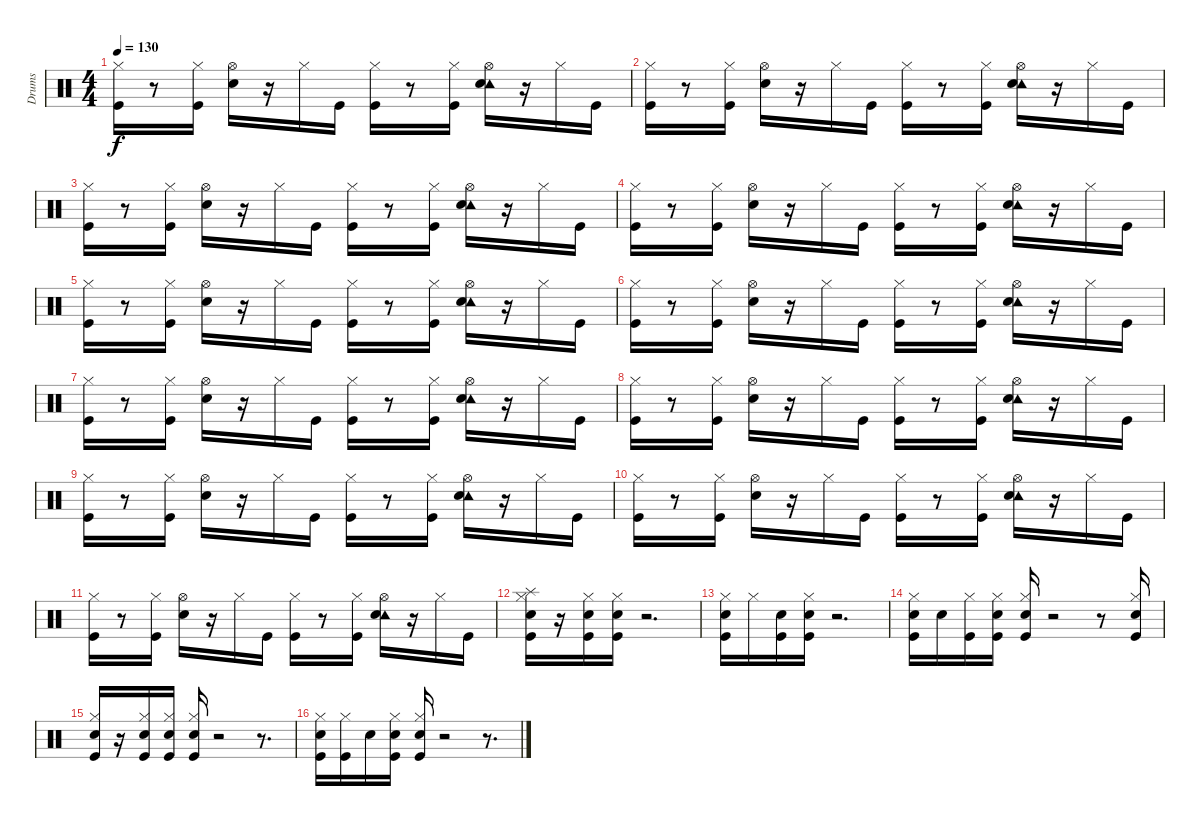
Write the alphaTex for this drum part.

\track ("Drums" "Drums") {instrument percussion}
\staff {score}
\articulation defaults
\ts (4 4)
\tempo 130
\clef neutral
\ks c
("Kick (hit)" "Hi-Hat (closed)").16{dy f} r.8 ("Hi-Hat (closed)" "Kick (hit)").16 ("Electric Snare (hit)" "Hi-Hat (open)").16 r.16 "Hi-Hat (closed)".16 "Kick (hit)".16 ("Hi-Hat (closed)" "Kick (hit)").16 r.8 ("Hi-Hat (closed)" "Kick (hit)").16 ("Tambourine (hit)" "Hi-Hat (open)" "Electric Snare (hit)").16 r.16 "Hi-Hat (closed)".16 "Kick (hit)".16 |
("Kick (hit)" "Hi-Hat (closed)").16 r.8 ("Hi-Hat (closed)" "Kick (hit)").16 ("Electric Snare (hit)" "Hi-Hat (open)").16 r.16 "Hi-Hat (closed)".16 "Kick (hit)".16 ("Hi-Hat (closed)" "Kick (hit)").16 r.8 ("Hi-Hat (closed)" "Kick (hit)").16 ("Tambourine (hit)" "Hi-Hat (open)" "Electric Snare (hit)").16 r.16 "Hi-Hat (closed)".16 "Kick (hit)".16 |
("Kick (hit)" "Hi-Hat (closed)").16 r.8 ("Hi-Hat (closed)" "Kick (hit)").16 ("Electric Snare (hit)" "Hi-Hat (open)").16 r.16 "Hi-Hat (closed)".16 "Kick (hit)".16 ("Hi-Hat (closed)" "Kick (hit)").16 r.8 ("Hi-Hat (closed)" "Kick (hit)").16 ("Tambourine (hit)" "Hi-Hat (open)" "Electric Snare (hit)").16 r.16 "Hi-Hat (closed)".16 "Kick (hit)".16 |
("Kick (hit)" "Hi-Hat (closed)").16 r.8 ("Hi-Hat (closed)" "Kick (hit)").16 ("Electric Snare (hit)" "Hi-Hat (open)").16 r.16 "Hi-Hat (closed)".16 "Kick (hit)".16 ("Hi-Hat (closed)" "Kick (hit)").16 r.8 ("Hi-Hat (closed)" "Kick (hit)").16 ("Tambourine (hit)" "Hi-Hat (open)" "Electric Snare (hit)").16 r.16 "Hi-Hat (closed)".16 "Kick (hit)".16 |
("Kick (hit)" "Hi-Hat (closed)").16 r.8 ("Hi-Hat (closed)" "Kick (hit)").16 ("Electric Snare (hit)" "Hi-Hat (open)").16 r.16 "Hi-Hat (closed)".16 "Kick (hit)".16 ("Hi-Hat (closed)" "Kick (hit)").16 r.8 ("Hi-Hat (closed)" "Kick (hit)").16 ("Tambourine (hit)" "Hi-Hat (open)" "Electric Snare (hit)").16 r.16 "Hi-Hat (closed)".16 "Kick (hit)".16 |
("Kick (hit)" "Hi-Hat (closed)").16 r.8 ("Hi-Hat (closed)" "Kick (hit)").16 ("Electric Snare (hit)" "Hi-Hat (open)").16 r.16 "Hi-Hat (closed)".16 "Kick (hit)".16 ("Hi-Hat (closed)" "Kick (hit)").16 r.8 ("Hi-Hat (closed)" "Kick (hit)").16 ("Tambourine (hit)" "Hi-Hat (open)" "Electric Snare (hit)").16 r.16 "Hi-Hat (closed)".16 "Kick (hit)".16 |
("Kick (hit)" "Hi-Hat (closed)").16 r.8 ("Hi-Hat (closed)" "Kick (hit)").16 ("Electric Snare (hit)" "Hi-Hat (open)").16 r.16 "Hi-Hat (closed)".16 "Kick (hit)".16 ("Hi-Hat (closed)" "Kick (hit)").16 r.8 ("Hi-Hat (closed)" "Kick (hit)").16 ("Tambourine (hit)" "Hi-Hat (open)" "Electric Snare (hit)").16 r.16 "Hi-Hat (closed)".16 "Kick (hit)".16 |
("Kick (hit)" "Hi-Hat (closed)").16 r.8 ("Hi-Hat (closed)" "Kick (hit)").16 ("Electric Snare (hit)" "Hi-Hat (open)").16 r.16 "Hi-Hat (closed)".16 "Kick (hit)".16 ("Hi-Hat (closed)" "Kick (hit)").16 r.8 ("Hi-Hat (closed)" "Kick (hit)").16 ("Tambourine (hit)" "Hi-Hat (open)" "Electric Snare (hit)").16 r.16 "Hi-Hat (closed)".16 "Kick (hit)".16 |
("Kick (hit)" "Hi-Hat (closed)").16 r.8 ("Hi-Hat (closed)" "Kick (hit)").16 ("Electric Snare (hit)" "Hi-Hat (open)").16 r.16 "Hi-Hat (closed)".16 "Kick (hit)".16 ("Hi-Hat (closed)" "Kick (hit)").16 r.8 ("Hi-Hat (closed)" "Kick (hit)").16 ("Tambourine (hit)" "Hi-Hat (open)" "Electric Snare (hit)").16 r.16 "Hi-Hat (closed)".16 "Kick (hit)".16 |
("Kick (hit)" "Hi-Hat (closed)").16 r.8 ("Hi-Hat (closed)" "Kick (hit)").16 ("Electric Snare (hit)" "Hi-Hat (open)").16 r.16 "Hi-Hat (closed)".16 "Kick (hit)".16 ("Hi-Hat (closed)" "Kick (hit)").16 r.8 ("Hi-Hat (closed)" "Kick (hit)").16 ("Tambourine (hit)" "Hi-Hat (open)" "Electric Snare (hit)").16 r.16 "Hi-Hat (closed)".16 "Kick (hit)".16 |
("Kick (hit)" "Hi-Hat (closed)").16 r.8 ("Hi-Hat (closed)" "Kick (hit)").16 ("Electric Snare (hit)" "Hi-Hat (open)").16 r.16 "Hi-Hat (closed)".16 "Kick (hit)".16 ("Hi-Hat (closed)" "Kick (hit)").16 r.8 ("Hi-Hat (closed)" "Kick (hit)").16 ("Tambourine (hit)" "Hi-Hat (open)" "Electric Snare (hit)").16 r.16 "Hi-Hat (closed)".16 "Kick (hit)".16 |
("Kick (hit)" "Electric Snare (hit)" "Splash (hit)" "Hi-Hat (closed)").16 r.16 ("Kick (hit)" "Electric Snare (hit)" "Hi-Hat (closed)").16 ("Kick (hit)" "Electric Snare (hit)" "Hi-Hat (closed)").16 r.2{d} |
("Electric Snare (hit)" "Hi-Hat (closed)" "Kick (hit)").16 "Hi-Hat (closed)".16 ("Kick (hit)" "Electric Snare (hit)").16 ("Kick (hit)" "Electric Snare (hit)" "Hi-Hat (closed)").16 r.2{d} |
("Electric Snare (hit)" "Hi-Hat (closed)" "Kick (hit)").16 "Electric Snare (hit)".16 ("Hi-Hat (closed)" "Kick (hit)").16 ("Electric Snare (hit)" "Hi-Hat (closed)" "Kick (hit)").16 ("Kick (hit)" "Hi-Hat (closed)" "Electric Snare (hit)").16 r.2 r.8 ("Kick (hit)" "Hi-Hat (closed)" "Electric Snare (hit)").16 |
("Electric Snare (hit)" "Hi-Hat (closed)" "Kick (hit)").16 r.16 ("Hi-Hat (closed)" "Kick (hit)" "Electric Snare (hit)").16 ("Hi-Hat (closed)" "Kick (hit)" "Electric Snare (hit)").16 ("Kick (hit)" "Electric Snare (hit)" "Hi-Hat (closed)").16 r.2 r.8{d} |
("Kick (hit)" "Hi-Hat (closed)" "Electric Snare (hit)").16 ("Kick (hit)" "Hi-Hat (closed)").16 "Electric Snare (hit)".16 ("Hi-Hat (closed)" "Kick (hit)" "Electric Snare (hit)").16 ("Kick (hit)" "Hi-Hat (closed)" "Electric Snare (hit)").16 r.2 r.8{d}
